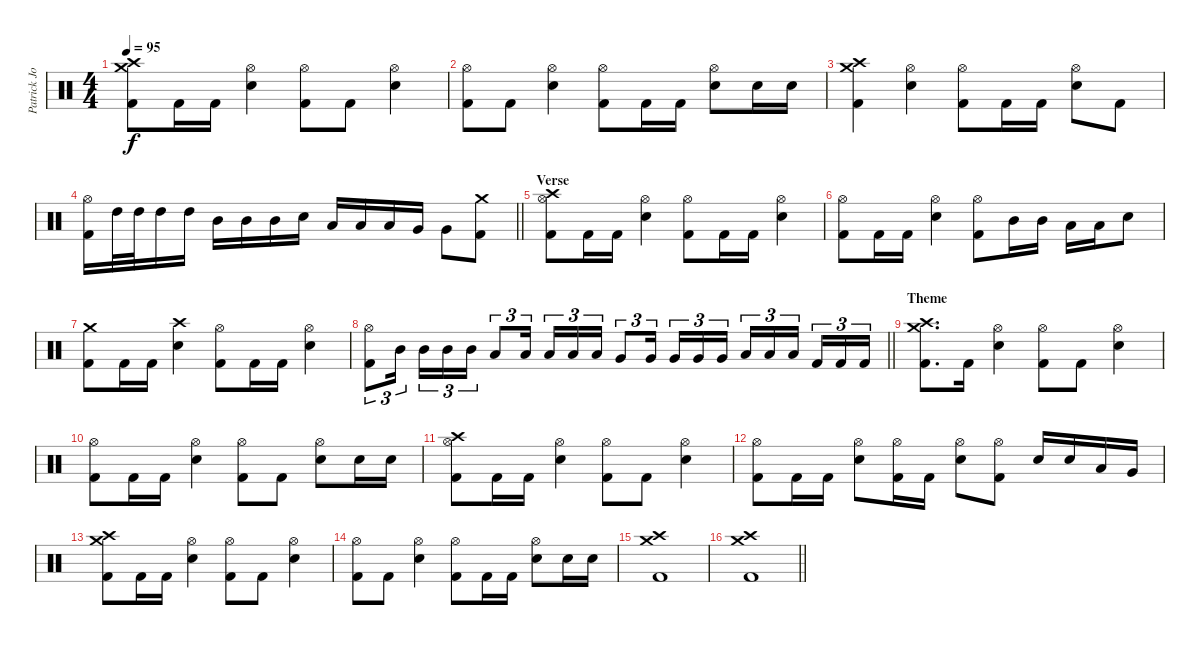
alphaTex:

\track ("Patrick Johansson" "Patrick Jo") {instrument percussion}
\staff {score}
\articulation defaults
\ts (4 4)
\tempo 95
\clef neutral
\ks c
("Crash high (hit)" "Crash medium (hit)" "Kick (hit) 2").8{dy f} "Kick (hit) 2".16 "Kick (hit) 2".16 ("Hi-Hat (open)" "Snare (hit) 2").4 ("Hi-Hat (open)" "Kick (hit) 2").8 "Kick (hit) 2".8 ("Hi-Hat (open)" "Snare (hit) 2").4 |
("Hi-Hat (open)" "Kick (hit) 2").8 "Kick (hit) 2".8 ("Hi-Hat (open)" "Snare (hit) 2").4 ("Hi-Hat (open)" "Kick (hit) 2").8 "Kick (hit) 2".16 "Kick (hit) 2".16 ("Hi-Hat (open)" "Snare (hit) 2").8 "Snare (hit) 2".16 "Snare (hit) 2".16 |
("Crash medium (hit)" "Crash high (hit)" "Kick (hit) 2").4 ("Hi-Hat (open)" "Snare (hit) 2").4 ("Hi-Hat (open)" "Kick (hit) 2").8 "Kick (hit) 2".16 "Kick (hit) 2".16 ("Hi-Hat (open)" "Snare (hit) 2").8 "Kick (hit) 2".8 |
\barLineRight lightlight
("Hi-Hat (open)" "Kick (hit) 2").16 "High Tom (hit)".32 "High Tom (hit)".32 "High Tom (hit)".16 "High Tom (hit)".16 "Mid Tom (hit)".16 "Mid Tom (hit)".16 "Mid Tom (hit)".16 "Snare (hit) 2".16 "Low Tom (hit)".16 "Low Tom (hit)".16 "Low Tom (hit)".16 "Very Low Tom (hit)".16 "Very Low Tom (hit)".8 ("Crash medium (hit)" "Kick (hit) 2").8 |
\section ("" "Verse")
("Crash high (hit)" "Hi-Hat (open)" "Kick (hit) 2").8 "Kick (hit) 2".16 "Kick (hit) 2".16 ("Hi-Hat (open)" "Snare (hit) 2").4 ("Hi-Hat (open)" "Kick (hit) 2").8 "Kick (hit) 2".16 "Kick (hit) 2".16 ("Hi-Hat (open)" "Snare (hit) 2").4 |
("Hi-Hat (open)" "Kick (hit) 2").8 "Kick (hit) 2".16 "Kick (hit) 2".16 ("Hi-Hat (open)" "Snare (hit) 2").4 ("Hi-Hat (open)" "Kick (hit) 2").8 "Mid Tom (hit)".16 "Mid Tom (hit)".16 "Low Tom (hit)".16 "Low Tom (hit)".16 "Snare (hit) 2".8 |
("Crash medium (hit)" "Kick (hit) 2").8 "Kick (hit) 2".16 "Kick (hit) 2".16 ("Crash high (hit)" "Snare (hit) 2").4 ("Hi-Hat (open)" "Kick (hit) 2").8 "Kick (hit) 2".16 "Kick (hit) 2".16 ("Hi-Hat (open)" "Snare (hit) 2").4 |
\barLineRight lightlight
("Hi-Hat (open)" "Kick (hit) 2").8{tu (3 2)} "Mid Tom (hit)".16{tu (3 2) beam splitsecondary} "Mid Tom (hit)".16{tu (3 2)} "Mid Tom (hit)".16{tu (3 2)} "Mid Tom (hit)".16{tu (3 2)} "Low Tom (hit)".8{tu (3 2)} "Low Tom (hit)".16{tu (3 2) beam splitsecondary} "Low Tom (hit)".16{tu (3 2)} "Low Tom (hit)".16{tu (3 2)} "Low Tom (hit)".16{tu (3 2)} "Very Low Tom (hit)".8{tu (3 2)} "Very Low Tom (hit)".16{tu (3 2) beam splitsecondary} "Very Low Tom (hit)".16{tu (3 2)} "Very Low Tom (hit)".16{tu (3 2)} "Very Low Tom (hit)".16{tu (3 2)} "Low Floor Tom (hit)".16{tu (3 2)} "Low Floor Tom (hit)".16{tu (3 2)} "Low Floor Tom (hit)".16{tu (3 2) beam splitsecondary} "Kick (hit) 2".16{tu (3 2)} "Kick (hit) 2".16{tu (3 2)} "Kick (hit) 2".16{tu (3 2)} |
\section ("" "Theme")
("Crash high (hit)" "Crash medium (hit)" "Kick (hit) 2").8{d} "Kick (hit) 2".16 ("Hi-Hat (open)" "Snare (hit) 2").4 ("Hi-Hat (open)" "Kick (hit) 2").8 "Kick (hit) 2".8 ("Hi-Hat (open)" "Snare (hit) 2").4 |
("Hi-Hat (open)" "Kick (hit) 2").8 "Kick (hit) 2".16 "Kick (hit) 2".16 ("Hi-Hat (open)" "Snare (hit) 2").4 ("Hi-Hat (open)" "Kick (hit) 2").8 "Kick (hit) 2".8 ("Hi-Hat (open)" "Snare (hit) 2").8 "Snare (hit) 2".16 "Snare (hit) 2".16 |
("Crash high (hit)" "Hi-Hat (open)" "Kick (hit) 2").8 "Kick (hit) 2".16 "Kick (hit) 2".16 ("Hi-Hat (open)" "Snare (hit) 2").4 ("Hi-Hat (open)" "Kick (hit) 2").8 "Kick (hit) 2".8 ("Hi-Hat (open)" "Snare (hit) 2").4 |
("Hi-Hat (open)" "Kick (hit) 2").8 "Kick (hit) 2".16 "Kick (hit) 2".16 ("Hi-Hat (open)" "Snare (hit) 2").8 ("Hi-Hat (open)" "Kick (hit) 2").16 "Kick (hit) 2".16 ("Hi-Hat (open)" "Snare (hit) 2").8 ("Hi-Hat (open)" "Kick (hit) 2").8 "Snare (hit) 2".16 "Snare (hit) 2".16 "Low Tom (hit)".16 "Very Low Tom (hit)".16 |
("Crash high (hit)" "Crash medium (hit)" "Kick (hit) 2").8 "Kick (hit) 2".16 "Kick (hit) 2".16 ("Hi-Hat (open)" "Snare (hit) 2").4 ("Hi-Hat (open)" "Kick (hit) 2").8 "Kick (hit) 2".8 ("Hi-Hat (open)" "Snare (hit) 2").4 |
("Hi-Hat (open)" "Kick (hit) 2").8 "Kick (hit) 2".8 ("Hi-Hat (open)" "Snare (hit) 2").4 ("Hi-Hat (open)" "Kick (hit) 2").8 "Kick (hit) 2".16 "Kick (hit) 2".16 ("Hi-Hat (open)" "Snare (hit) 2").8 "Snare (hit) 2".16 "Snare (hit) 2".16 |
("Crash medium (hit)" "Crash high (hit)" "Kick (hit) 2").1 |
\barLineRight lightlight
("Crash medium (hit)" "Crash high (hit)" "Kick (hit) 2").1
